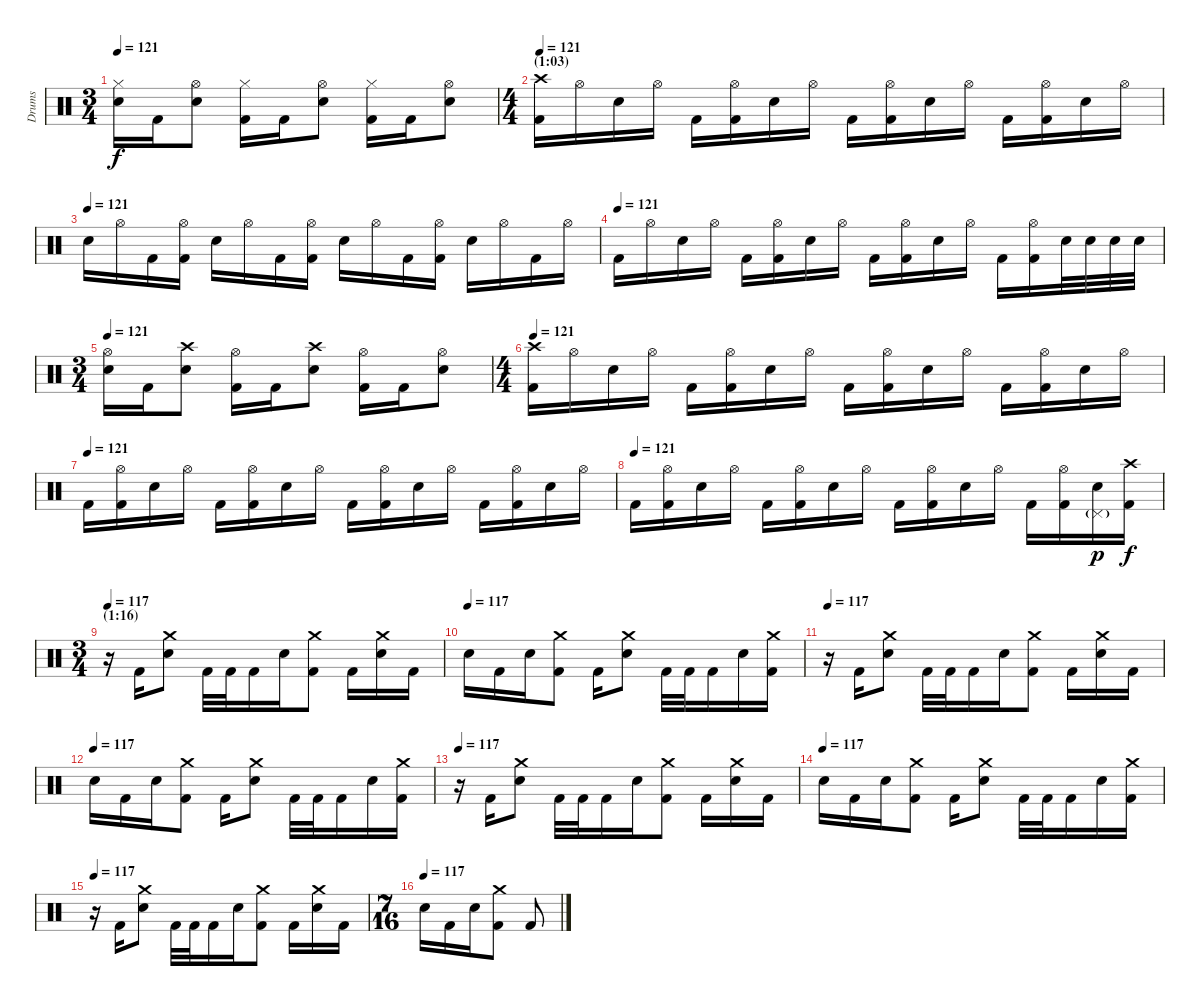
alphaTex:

\track ("Drums" "Drums") {instrument percussion}
\staff {score}
\articulation defaults
\ts (3 4)
\tempo 121
\clef neutral
\ks c
("Hi-Hat (closed)" "Snare (hit) 2").16{dy f} "Kick (hit) 2".16 ("Hi-Hat (open)" "Snare (hit) 2").8 ("Hi-Hat (closed)" "Kick (hit) 2").16 "Kick (hit) 2".16 ("Hi-Hat (open)" "Snare (hit) 2").8 ("Hi-Hat (closed)" "Kick (hit) 2").16 "Kick (hit) 2".16 ("Hi-Hat (open)" "Snare (hit) 2").8 |
\ts (4 4)
\section ("" "(1:03)")
\tempo 121
("Crash high (hit)" "Kick (hit) 2").16 "Hi-Hat (open)".16 "Snare (hit) 2".16 "Hi-Hat (open)".16 "Kick (hit) 2".16 ("Hi-Hat (open)" "Kick (hit) 2").16 "Snare (hit) 2".16 "Hi-Hat (open)".16 "Kick (hit) 2".16 ("Hi-Hat (open)" "Kick (hit) 2").16 "Snare (hit) 2".16 "Hi-Hat (open)".16 "Kick (hit) 2".16 ("Hi-Hat (open)" "Kick (hit) 2").16 "Snare (hit) 2".16 "Hi-Hat (open)".16 |
\tempo (121)
"Snare (hit) 2".16 "Hi-Hat (open)".16 "Kick (hit) 2".16 ("Hi-Hat (open)" "Kick (hit) 2").16 "Snare (hit) 2".16 "Hi-Hat (open)".16 "Kick (hit) 2".16 ("Hi-Hat (open)" "Kick (hit) 2").16 "Snare (hit) 2".16 "Hi-Hat (open)".16 "Kick (hit) 2".16 ("Hi-Hat (open)" "Kick (hit) 2").16 "Snare (hit) 2".16 "Hi-Hat (open)".16 "Kick (hit) 2".16 "Hi-Hat (open)".16 |
\tempo (121)
"Kick (hit) 2".16 "Hi-Hat (open)".16 "Snare (hit) 2".16 "Hi-Hat (open)".16 "Kick (hit) 2".16 ("Hi-Hat (open)" "Kick (hit) 2").16 "Snare (hit) 2".16 "Hi-Hat (open)".16 "Kick (hit) 2".16 ("Hi-Hat (open)" "Kick (hit) 2").16 "Snare (hit) 2".16 "Hi-Hat (open)".16 "Kick (hit) 2".16 ("Hi-Hat (open)" "Kick (hit) 2").16 "Snare (hit) 2".32 "Snare (hit) 2".32 "Snare (hit) 2".32 "Snare (hit) 2".32 |
\ts (3 4)
\tempo 121
("Hi-Hat (open)" "Snare (hit) 2").16 "Kick (hit) 2".16 ("Crash high (hit)" "Snare (hit) 2").8 ("Hi-Hat (open)" "Kick (hit) 2").16 "Kick (hit) 2".16 ("Crash high (hit)" "Snare (hit) 2").8 ("Hi-Hat (open)" "Kick (hit) 2").16 "Kick (hit) 2".16 ("Hi-Hat (open)" "Snare (hit) 2").8 |
\ts (4 4)
\tempo 121
("Crash high (hit)" "Kick (hit) 2").16 "Hi-Hat (open)".16 "Snare (hit) 2".16 "Hi-Hat (open)".16 "Kick (hit) 2".16 ("Hi-Hat (open)" "Kick (hit) 2").16 "Snare (hit) 2".16 "Hi-Hat (open)".16 "Kick (hit) 2".16 ("Hi-Hat (open)" "Kick (hit) 2").16 "Snare (hit) 2".16 "Hi-Hat (open)".16 "Kick (hit) 2".16 ("Hi-Hat (open)" "Kick (hit) 2").16 "Snare (hit) 2".16 "Hi-Hat (open)".16 |
\tempo (121)
"Kick (hit) 2".16 ("Hi-Hat (open)" "Kick (hit) 2").16 "Snare (hit) 2".16 "Hi-Hat (open)".16 "Kick (hit) 2".16 ("Hi-Hat (open)" "Kick (hit) 2").16 "Snare (hit) 2".16 "Hi-Hat (open)".16 "Kick (hit) 2".16 ("Hi-Hat (open)" "Kick (hit) 2").16 "Snare (hit) 2".16 "Hi-Hat (open)".16 "Kick (hit) 2".16 ("Hi-Hat (open)" "Kick (hit) 2").16 "Snare (hit) 2".16 "Hi-Hat (open)".16 |
\tempo (121)
"Kick (hit) 2".16 ("Hi-Hat (open)" "Kick (hit) 2").16 "Snare (hit) 2".16 "Hi-Hat (open)".16 "Kick (hit) 2".16 ("Hi-Hat (open)" "Kick (hit) 2").16 "Snare (hit) 2".16 "Hi-Hat (open)".16 "Kick (hit) 2".16 ("Hi-Hat (open)" "Kick (hit) 2").16 "Snare (hit) 2".16 "Hi-Hat (open)".16 "Kick (hit) 2".16 ("Hi-Hat (open)" "Kick (hit) 2").16 ("Pedal Hi-Hat (hit)"{g} "Snare (hit) 2").16{dy p} ("Crash high (hit)" "Kick (hit) 2").16{dy f} |
\ts (3 4)
\section ("" "(1:16)")
\tempo 117
r.16 "Kick (hit) 2".16 ("Crash medium (hit)" "Snare (hit) 2").8 "Kick (hit) 2".32 "Kick (hit) 2".32 "Kick (hit) 2".16 "Snare (hit) 2".16 ("Crash medium (hit)" "Kick (hit) 2").8 "Kick (hit) 2".16 ("Crash medium (hit)" "Snare (hit) 2").16 "Kick (hit) 2".16 |
\tempo (117)
"Snare (hit) 2".16 "Kick (hit) 2".16 "Snare (hit) 2".16 ("Crash medium (hit)" "Kick (hit) 2").8 "Kick (hit) 2".16 ("Crash medium (hit)" "Snare (hit) 2").8 "Kick (hit) 2".32 "Kick (hit) 2".32 "Kick (hit) 2".16 "Snare (hit) 2".16 ("Crash medium (hit)" "Kick (hit) 2").16 |
\tempo 117
r.16 "Kick (hit) 2".16 ("Crash medium (hit)" "Snare (hit) 2").8 "Kick (hit) 2".32 "Kick (hit) 2".32 "Kick (hit) 2".16 "Snare (hit) 2".16 ("Crash medium (hit)" "Kick (hit) 2").8 "Kick (hit) 2".16 ("Crash medium (hit)" "Snare (hit) 2").16 "Kick (hit) 2".16 |
\tempo (117)
"Snare (hit) 2".16 "Kick (hit) 2".16 "Snare (hit) 2".16 ("Crash medium (hit)" "Kick (hit) 2").8 "Kick (hit) 2".16 ("Crash medium (hit)" "Snare (hit) 2").8 "Kick (hit) 2".32 "Kick (hit) 2".32 "Kick (hit) 2".16 "Snare (hit) 2".16 ("Crash medium (hit)" "Kick (hit) 2").16 |
\tempo 117
r.16 "Kick (hit) 2".16 ("Crash medium (hit)" "Snare (hit) 2").8 "Kick (hit) 2".32 "Kick (hit) 2".32 "Kick (hit) 2".16 "Snare (hit) 2".16 ("Crash medium (hit)" "Kick (hit) 2").8 "Kick (hit) 2".16 ("Crash medium (hit)" "Snare (hit) 2").16 "Kick (hit) 2".16 |
\tempo (117)
"Snare (hit) 2".16 "Kick (hit) 2".16 "Snare (hit) 2".16 ("Crash medium (hit)" "Kick (hit) 2").8 "Kick (hit) 2".16 ("Crash medium (hit)" "Snare (hit) 2").8 "Kick (hit) 2".32 "Kick (hit) 2".32 "Kick (hit) 2".16 "Snare (hit) 2".16 ("Crash medium (hit)" "Kick (hit) 2").16 |
\tempo 117
r.16 "Kick (hit) 2".16 ("Crash medium (hit)" "Snare (hit) 2").8 "Kick (hit) 2".32 "Kick (hit) 2".32 "Kick (hit) 2".16 "Snare (hit) 2".16 ("Crash medium (hit)" "Kick (hit) 2").8 "Kick (hit) 2".16 ("Crash medium (hit)" "Snare (hit) 2").16 "Kick (hit) 2".16 |
\ts (7 16)
\tempo (117)
"Snare (hit) 2".16 "Kick (hit) 2".16 "Snare (hit) 2".16 ("Crash medium (hit)" "Kick (hit) 2").8 "Kick (hit) 2".8
